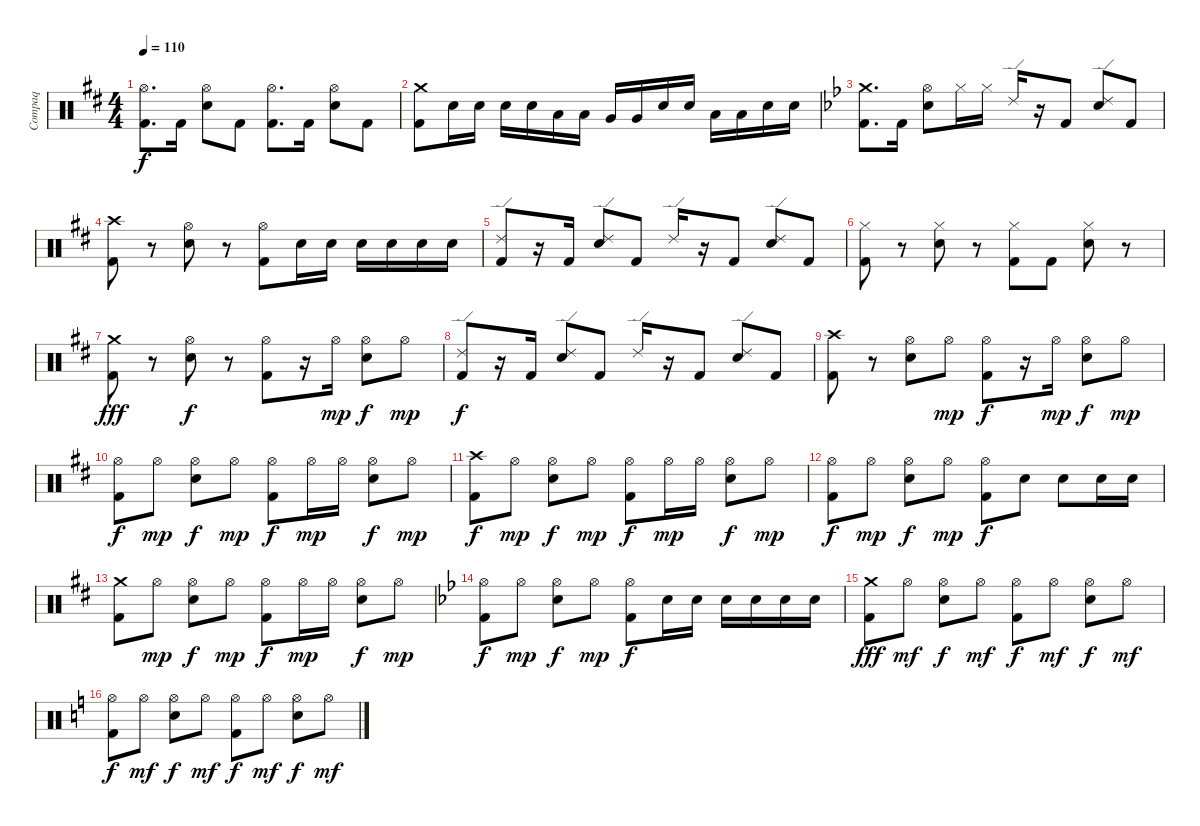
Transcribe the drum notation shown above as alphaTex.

\track ("Compaq" "Compaq") {instrument percussion}
\staff {score}
\articulation defaults
\ts (4 4)
\tempo 110
\clef neutral
\ks bminor
("Hi-Hat (open)" "Kick (hit) 2").8{d dy f} "Kick (hit) 2".16 ("Hi-Hat (open)" "Electric Snare (hit)").8 "Kick (hit) 2".8 ("Hi-Hat (open)" "Kick (hit) 2").8{d} "Kick (hit) 2".16 ("Hi-Hat (open)" "Electric Snare (hit)").8 "Kick (hit) 2".8{balance 5} |
("Crash medium (hit)" "Kick (hit) 2").8{balance 14} "Electric Snare (hit)".16 "Electric Snare (hit)".16 "Electric Snare (hit)".16 "Electric Snare (hit)".16 "Low Tom (hit)".16 "Low Tom (hit)".16 "Very Low Tom (hit)".16 "Very Low Tom (hit)".16 "Electric Snare (hit)".16 "Electric Snare (hit)".16 "Low Floor Tom (hit)".16 "Low Floor Tom (hit)".16 "Electric Snare (hit)".16 "Electric Snare (hit)".16 |
\ks bb
("Crash medium (hit)" "Kick (hit) 2").8{d balance 8} "Kick (hit) 2".16 ("Hi-Hat (open)" "Electric Snare (hit)").8 "Hi-Hat (closed)".16 "Hi-Hat (closed)".16 "Ride (edge) 2".16 r.16 "Kick (hit) 2".8 ("Ride (edge) 2" "Electric Snare (hit)").8 "Kick (hit) 2".8 |
\ks bminor
("Crash high (hit)" "Kick (hit) 2").8 r.8 ("Hi-Hat (open)" "Snare (hit) 2").8 r.8{balance 13} ("Hi-Hat (open)" "Kick (hit) 2").8{balance 4} "Snare (hit) 2".16 "Snare (hit) 2".16 "Snare (hit) 2".16 "Snare (hit) 2".16 "Snare (hit) 2".16 "Snare (hit) 2".16 |
("Ride (edge) 2" "Kick (hit) 2").8{balance 8} r.16 "Kick (hit) 2".16 ("Electric Snare (hit)" "Ride (edge) 2").8 "Kick (hit) 2".8 "Ride (edge) 2".16 r.16 "Kick (hit) 2".8 ("Electric Snare (hit)" "Ride (edge) 2").8 "Kick (hit) 2".8 |
("Kick (hit) 2" "Hi-Hat (closed)").8 r.8 ("Snare (hit) 2" "Hi-Hat (closed)").8 r.8 ("Kick (hit) 2" "Hi-Hat (closed)").8 "Kick (hit) 2".8 ("Snare (hit) 2" "Hi-Hat (closed)").8 r.8 |
("Crash medium (hit)" "Kick (hit) 2").8{dy fff} r.8 ("Hi-Hat (open)" "Snare (hit) 2").8{dy f} r.8 ("Hi-Hat (open)" "Kick (hit) 2").8 r.16 "Hi-Hat (open)".16{dy mp} ("Hi-Hat (open)" "Snare (hit) 2").8{dy f} "Hi-Hat (open)".8{dy mp} |
("Ride (edge) 2" "Kick (hit) 2").8{dy f} r.16 "Kick (hit) 2".16 ("Electric Snare (hit)" "Ride (edge) 2").8 "Kick (hit) 2".8 "Ride (edge) 2".16 r.16 "Kick (hit) 2".8 ("Electric Snare (hit)" "Ride (edge) 2").8 "Kick (hit) 2".8 |
("Crash high (hit)" "Kick (hit) 2").8 r.8 ("Hi-Hat (open)" "Snare (hit) 2").8 "Hi-Hat (open)".8{dy mp} ("Hi-Hat (open)" "Kick (hit) 2").8{dy f} r.16 "Hi-Hat (open)".16{dy mp} ("Hi-Hat (open)" "Snare (hit) 2").8{dy f} "Hi-Hat (open)".8{dy mp} |
("Hi-Hat (open)" "Kick (hit) 2").8{dy f} "Hi-Hat (open)".8{dy mp} ("Hi-Hat (open)" "Snare (hit) 2").8{dy f} "Hi-Hat (open)".8{dy mp} ("Hi-Hat (open)" "Kick (hit) 2").8{dy f} "Hi-Hat (open)".16{dy mp} "Hi-Hat (open)".16 ("Hi-Hat (open)" "Snare (hit) 2").8{dy f} "Hi-Hat (open)".8{dy mp} |
("Crash high (hit)" "Kick (hit) 2").8{dy f} "Hi-Hat (open)".8{dy mp} ("Hi-Hat (open)" "Snare (hit) 2").8{dy f} "Hi-Hat (open)".8{dy mp} ("Hi-Hat (open)" "Kick (hit) 2").8{dy f} "Hi-Hat (open)".16{dy mp} "Hi-Hat (open)".16 ("Hi-Hat (open)" "Snare (hit) 2").8{dy f} "Hi-Hat (open)".8{dy mp} |
("Hi-Hat (open)" "Kick (hit) 2").8{dy f} "Hi-Hat (open)".8{dy mp} ("Hi-Hat (open)" "Snare (hit) 2").8{dy f} "Hi-Hat (open)".8{dy mp} ("Hi-Hat (open)" "Kick (hit) 2").8{dy f} "Snare (hit) 2".8 "Snare (hit) 2".8 "Snare (hit) 2".16 "Snare (hit) 2".16 |
("Crash medium (hit)" "Kick (hit) 2").8 "Hi-Hat (open)".8{dy mp} ("Hi-Hat (open)" "Snare (hit) 2").8{dy f} "Hi-Hat (open)".8{dy mp} ("Hi-Hat (open)" "Kick (hit) 2").8{dy f} "Hi-Hat (open)".16{dy mp} "Hi-Hat (open)".16 ("Hi-Hat (open)" "Snare (hit) 2").8{dy f} "Hi-Hat (open)".8{dy mp} |
\ks bb
("Hi-Hat (open)" "Kick (hit) 2").8{dy f} "Hi-Hat (open)".8{dy mp} ("Hi-Hat (open)" "Snare (hit) 2").8{dy f} "Hi-Hat (open)".8{dy mp} ("Hi-Hat (open)" "Kick (hit) 2").8{dy f balance 6} "Snare (hit) 2".16{balance 13} "Snare (hit) 2".16 "Snare (hit) 2".16 "Snare (hit) 2".16 "Snare (hit) 2".16 "Snare (hit) 2".16 |
("Crash medium (hit)" "Kick (hit) 2").8{dy fff} "Hi-Hat (open)".8{dy mf} ("Hi-Hat (open)" "Snare (hit) 2").8{dy f balance 8} "Hi-Hat (open)".8{dy mf} ("Hi-Hat (open)" "Kick (hit) 2").8{dy f} "Hi-Hat (open)".8{dy mf} ("Hi-Hat (open)" "Snare (hit) 2").8{dy f balance 8} "Hi-Hat (open)".8{dy mf} |
\ks c
("Hi-Hat (open)" "Kick (hit) 2").8{dy f} "Hi-Hat (open)".8{dy mf} ("Hi-Hat (open)" "Snare (hit) 2").8{dy f} "Hi-Hat (open)".8{dy mf} ("Hi-Hat (open)" "Kick (hit) 2").8{dy f} "Hi-Hat (open)".8{dy mf} ("Hi-Hat (open)" "Snare (hit) 2").8{dy f} "Hi-Hat (open)".8{dy mf}
